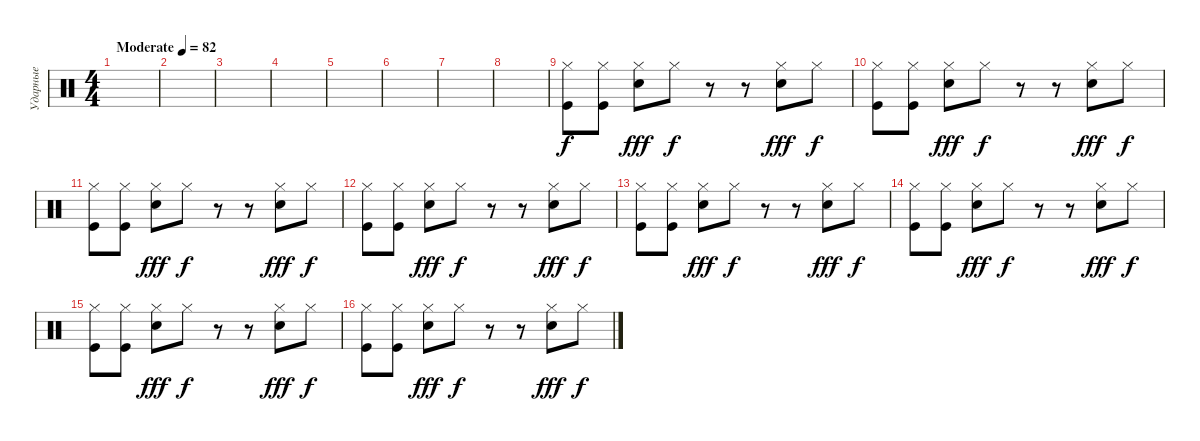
\track ("Ударные" "Ударные") {instrument percussion}
\staff {score}
\articulation defaults
\ts (4 4)
\tempo (82 "Moderate")
\clef neutral
\ks c
|
|
|
|
|
|
|
|
("Hi-Hat (closed)" "Kick (hit)").8 ("Hi-Hat (closed)" "Kick (hit)").8 ("Hi-Hat (closed)" "Hand Clap (hit)").8{dy fff} "Hi-Hat (closed)".8{dy f} r.8 r.8 ("Hi-Hat (closed)" "Hand Clap (hit)").8{dy fff} "Hi-Hat (closed)".8{dy f} |
("Hi-Hat (closed)" "Kick (hit)").8 ("Hi-Hat (closed)" "Kick (hit)").8 ("Hi-Hat (closed)" "Hand Clap (hit)").8{dy fff} "Hi-Hat (closed)".8{dy f} r.8 r.8 ("Hi-Hat (closed)" "Hand Clap (hit)").8{dy fff} "Hi-Hat (closed)".8{dy f} |
("Hi-Hat (closed)" "Kick (hit)").8 ("Hi-Hat (closed)" "Kick (hit)").8 ("Hi-Hat (closed)" "Hand Clap (hit)").8{dy fff} "Hi-Hat (closed)".8{dy f} r.8 r.8 ("Hi-Hat (closed)" "Hand Clap (hit)").8{dy fff} "Hi-Hat (closed)".8{dy f} |
("Hi-Hat (closed)" "Kick (hit)").8 ("Hi-Hat (closed)" "Kick (hit)").8 ("Hi-Hat (closed)" "Hand Clap (hit)").8{dy fff} "Hi-Hat (closed)".8{dy f} r.8 r.8 ("Hi-Hat (closed)" "Hand Clap (hit)").8{dy fff} "Hi-Hat (closed)".8{dy f} |
("Hi-Hat (closed)" "Kick (hit)").8 ("Hi-Hat (closed)" "Kick (hit)").8 ("Hi-Hat (closed)" "Hand Clap (hit)").8{dy fff} "Hi-Hat (closed)".8{dy f} r.8 r.8 ("Hi-Hat (closed)" "Hand Clap (hit)").8{dy fff} "Hi-Hat (closed)".8{dy f} |
("Hi-Hat (closed)" "Kick (hit)").8 ("Hi-Hat (closed)" "Kick (hit)").8 ("Hi-Hat (closed)" "Hand Clap (hit)").8{dy fff} "Hi-Hat (closed)".8{dy f} r.8 r.8 ("Hi-Hat (closed)" "Hand Clap (hit)").8{dy fff} "Hi-Hat (closed)".8{dy f} |
("Hi-Hat (closed)" "Kick (hit)").8 ("Hi-Hat (closed)" "Kick (hit)").8 ("Hi-Hat (closed)" "Hand Clap (hit)").8{dy fff} "Hi-Hat (closed)".8{dy f} r.8 r.8 ("Hi-Hat (closed)" "Hand Clap (hit)").8{dy fff} "Hi-Hat (closed)".8{dy f} |
("Hi-Hat (closed)" "Kick (hit)").8 ("Hi-Hat (closed)" "Kick (hit)").8 ("Hi-Hat (closed)" "Hand Clap (hit)").8{dy fff} "Hi-Hat (closed)".8{dy f} r.8 r.8 ("Hi-Hat (closed)" "Hand Clap (hit)").8{dy fff} "Hi-Hat (closed)".8{dy f}
